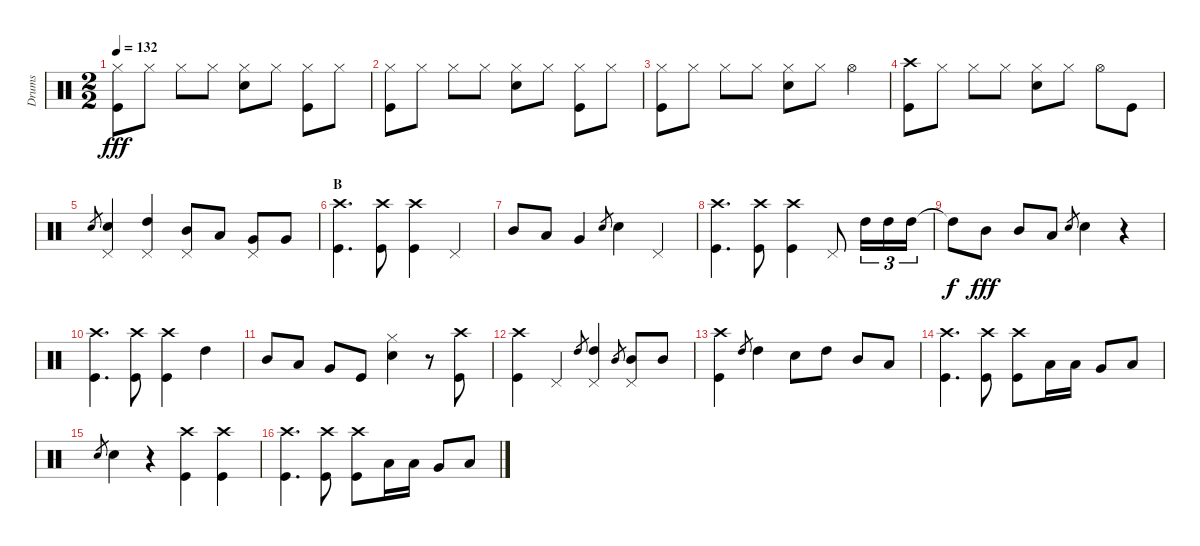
\track ("Drums" "Drums") {instrument percussion}
\staff {score}
\articulation defaults
\ts (2 2)
\tempo 132
\clef neutral
\ks c
("Hi-Hat (closed)" "Kick (hit)").8{dy fff} "Hi-Hat (closed)".8 "Hi-Hat (closed)".8 "Hi-Hat (closed)".8 ("Hi-Hat (closed)" "Snare (hit) 2").8 "Hi-Hat (closed)".8 ("Hi-Hat (closed)" "Kick (hit)").8 "Hi-Hat (closed)".8 |
("Hi-Hat (closed)" "Kick (hit)").8 "Hi-Hat (closed)".8 "Hi-Hat (closed)".8 "Hi-Hat (closed)".8 ("Hi-Hat (closed)" "Snare (hit) 2").8 "Hi-Hat (closed)".8 ("Hi-Hat (closed)" "Kick (hit)").8 "Hi-Hat (closed)".8 |
("Hi-Hat (closed)" "Kick (hit)").8 "Hi-Hat (closed)".8 "Hi-Hat (closed)".8 "Hi-Hat (closed)".8 ("Hi-Hat (closed)" "Snare (hit) 2").8 "Hi-Hat (closed)".8 "Hi-Hat (open)".4 |
("Crash high (hit)" "Kick (hit)").8 "Hi-Hat (closed)".8 "Hi-Hat (closed)".8 "Hi-Hat (closed)".8 ("Hi-Hat (closed)" "Snare (hit) 2").8 "Hi-Hat (closed)".8 "Hi-Hat (open)".8 "Kick (hit)".8 |
"Snare (hit) 2".8{gr} ("Pedal Hi-Hat (hit)" "Snare (hit) 2").4 ("Pedal Hi-Hat (hit)" "High Tom (hit)").4 ("Pedal Hi-Hat (hit)" "Mid Tom (hit)").8 "Low Tom (hit)".8 ("Pedal Hi-Hat (hit)" "Very Low Tom (hit)").8 "Very Low Tom (hit)".8 |
\section ("" "B")
("Crash high (hit)" "Kick (hit)").4{d} ("Crash high (hit)" "Kick (hit)").8 ("Crash high (hit)" "Kick (hit)").4 "Pedal Hi-Hat (hit)".4 |
"Mid Tom (hit)".8 "Low Tom (hit)".8 "Very Low Tom (hit)".4 "Snare (hit) 2".8{gr} "Snare (hit) 2".4 "Pedal Hi-Hat (hit)".4 |
("Crash high (hit)" "Kick (hit)").4{d} ("Crash high (hit)" "Kick (hit)").8 ("Crash high (hit)" "Kick (hit)").4 "Pedal Hi-Hat (hit)".8 "High Tom (hit)".16{tu (3 2)} "High Tom (hit)".16{tu (3 2)} "High Tom (hit)".16{tu (3 2)} |
"High Tom (hit)"{t}.8{dy f} "Mid Tom (hit)".8{dy fff} "Mid Tom (hit)".8 "Low Tom (hit)".8 "Snare (hit) 2".8{gr} "Snare (hit) 2".4 r.4 |
("Crash high (hit)" "Kick (hit)").4{d} ("Crash high (hit)" "Kick (hit)").8 ("Crash high (hit)" "Kick (hit)").4 "High Tom (hit)".4 |
"Mid Tom (hit)".8 "Low Tom (hit)".8 "Very Low Tom (hit)".8 "Kick (hit)".8 ("Hi-Hat (closed)" "Snare (hit) 2").4 r.8 ("Crash high (hit)" "Kick (hit)").8 |
("Crash high (hit)" "Kick (hit)").4 "Pedal Hi-Hat (hit)".4 "High Tom (hit)".8{gr} ("Pedal Hi-Hat (hit)" "High Tom (hit)").4 "Mid Tom (hit)".8{gr} ("Pedal Hi-Hat (hit)" "Mid Tom (hit)").8 "Mid Tom (hit)".8 |
("Crash high (hit)" "Kick (hit)").4 "High Tom (hit)".8{gr} "High Tom (hit)".4 "Snare (hit) 2".8 "High Tom (hit)".8 "Mid Tom (hit)".8 "Low Tom (hit)".8 |
("Crash high (hit)" "Kick (hit)").4{d} ("Crash high (hit)" "Kick (hit)").8 ("Crash high (hit)" "Kick (hit)").8 "Low Floor Tom (hit)".16 "Low Floor Tom (hit)".16 "Very Low Tom (hit)".8 "Low Floor Tom (hit)".8 |
"Snare (hit) 2".8{gr} "Snare (hit) 2".4 r.4 ("Crash high (hit)" "Kick (hit)").4 ("Crash high (hit)" "Kick (hit)").4 |
("Crash high (hit)" "Kick (hit)").4{d} ("Crash high (hit)" "Kick (hit)").8 ("Crash high (hit)" "Kick (hit)").8 "Low Floor Tom (hit)".16 "Low Floor Tom (hit)".16 "Very Low Tom (hit)".8 "Low Floor Tom (hit)".8
